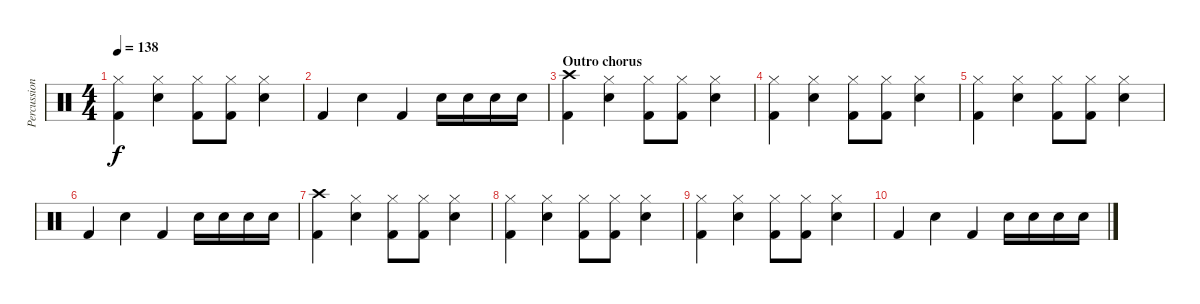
\track ("Percussion" "Percussion") {instrument percussion}
\staff {score}
\articulation defaults
\ts (4 4)
\tempo 138
\clef neutral
\ks c
("Kick (hit) 2" "Hi-Hat (closed)").4{dy f} ("Electric Snare (hit)" "Hi-Hat (closed)").4 ("Kick (hit) 2" "Hi-Hat (closed)").8 ("Kick (hit) 2" "Hi-Hat (closed)").8 ("Electric Snare (hit)" "Hi-Hat (closed)").4 |
"Kick (hit) 2".4 "Electric Snare (hit)".4 "Kick (hit) 2".4 "Electric Snare (hit)".16 "Electric Snare (hit)".16 "Electric Snare (hit)".16 "Electric Snare (hit)".16 |
\section ("" "Outro chorus")
("Kick (hit) 2" "Crash high (hit)").4 ("Electric Snare (hit)" "Hi-Hat (closed)").4 ("Kick (hit) 2" "Hi-Hat (closed)").8 ("Kick (hit) 2" "Hi-Hat (closed)").8 ("Electric Snare (hit)" "Hi-Hat (closed)").4 |
("Kick (hit) 2" "Hi-Hat (closed)").4 ("Electric Snare (hit)" "Hi-Hat (closed)").4 ("Kick (hit) 2" "Hi-Hat (closed)").8 ("Kick (hit) 2" "Hi-Hat (closed)").8 ("Electric Snare (hit)" "Hi-Hat (closed)").4 |
("Kick (hit) 2" "Hi-Hat (closed)").4 ("Electric Snare (hit)" "Hi-Hat (closed)").4 ("Kick (hit) 2" "Hi-Hat (closed)").8 ("Kick (hit) 2" "Hi-Hat (closed)").8 ("Electric Snare (hit)" "Hi-Hat (closed)").4 |
"Kick (hit) 2".4 "Electric Snare (hit)".4 "Kick (hit) 2".4 "Electric Snare (hit)".16 "Electric Snare (hit)".16 "Electric Snare (hit)".16 "Electric Snare (hit)".16 |
("Kick (hit) 2" "Crash high (hit)").4 ("Electric Snare (hit)" "Hi-Hat (closed)").4 ("Kick (hit) 2" "Hi-Hat (closed)").8 ("Kick (hit) 2" "Hi-Hat (closed)").8 ("Electric Snare (hit)" "Hi-Hat (closed)").4 |
("Kick (hit) 2" "Hi-Hat (closed)").4 ("Electric Snare (hit)" "Hi-Hat (closed)").4 ("Kick (hit) 2" "Hi-Hat (closed)").8 ("Kick (hit) 2" "Hi-Hat (closed)").8 ("Electric Snare (hit)" "Hi-Hat (closed)").4 |
("Kick (hit) 2" "Hi-Hat (closed)").4 ("Electric Snare (hit)" "Hi-Hat (closed)").4 ("Kick (hit) 2" "Hi-Hat (closed)").8 ("Kick (hit) 2" "Hi-Hat (closed)").8 ("Electric Snare (hit)" "Hi-Hat (closed)").4 |
"Kick (hit) 2".4 "Electric Snare (hit)".4 "Kick (hit) 2".4 "Electric Snare (hit)".16 "Electric Snare (hit)".16 "Electric Snare (hit)".16 "Electric Snare (hit)".16
